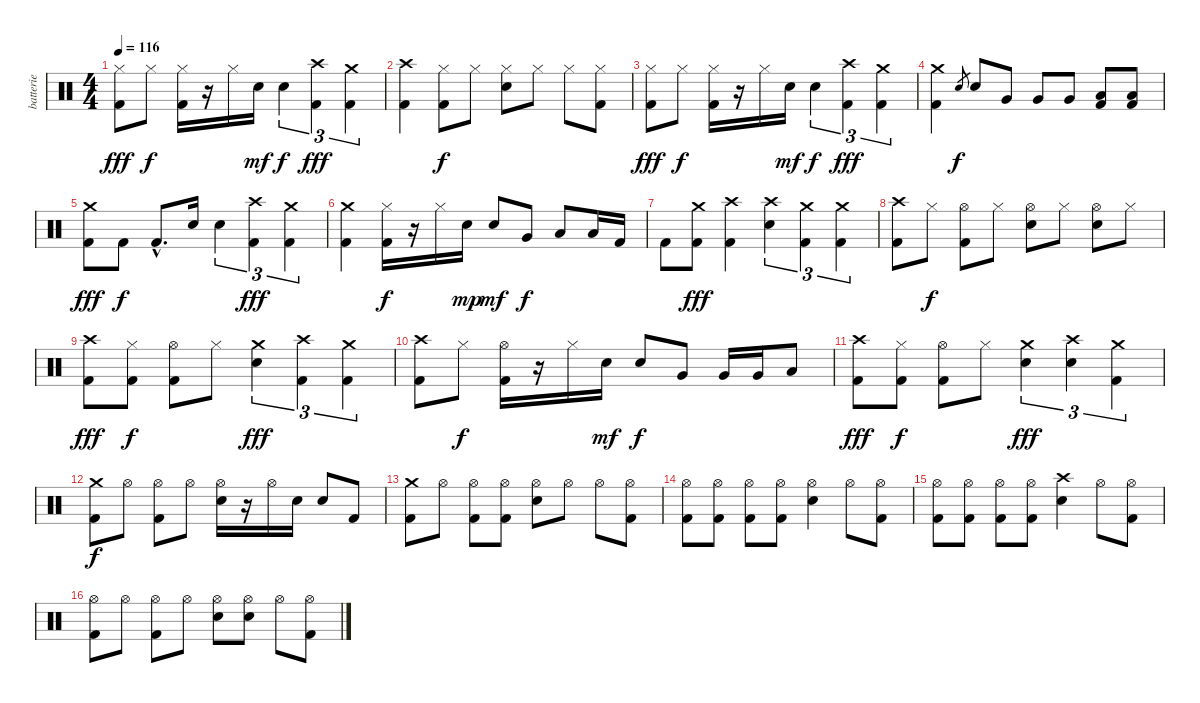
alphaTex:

\track ("batterie" "batterie") {instrument percussion}
\staff {score}
\articulation defaults
\ts (4 4)
\tempo 116
\clef neutral
\ks c
("Kick (hit) 2" "Hi-Hat (closed)").8{dy fff} "Hi-Hat (closed)".8{dy f} ("Kick (hit) 2" "Hi-Hat (closed)").16 r.16 "Hi-Hat (closed)".16 "Electric Snare (hit)".16{dy mf} "Electric Snare (hit)".4{tu (3 2) dy f} ("Kick (hit) 2" "Crash high (hit)").4{tu (3 2) dy fff} ("Kick (hit) 2" "Crash medium (hit)").4{tu (3 2)} |
("Kick (hit) 2" "Crash high (hit)").4 ("Kick (hit) 2" "Hi-Hat (closed)").8{dy f} "Hi-Hat (closed)".8 ("Electric Snare (hit)" "Hi-Hat (closed)").8 "Hi-Hat (closed)".8 "Hi-Hat (closed)".8 ("Kick (hit) 2" "Hi-Hat (closed)").8 |
("Kick (hit) 2" "Hi-Hat (closed)").8{dy fff} "Hi-Hat (closed)".8{dy f} ("Kick (hit) 2" "Hi-Hat (closed)").16 r.16 "Hi-Hat (closed)".16 "Electric Snare (hit)".16{dy mf} "Electric Snare (hit)".4{tu (3 2) dy f} ("Kick (hit) 2" "Crash high (hit)").4{tu (3 2) dy fff} ("Kick (hit) 2" "Crash medium (hit)").4{tu (3 2)} |
("Kick (hit) 2" "Crash medium (hit)").4 "Electric Snare (hit)".8{gr dy f} "Electric Snare (hit)".8 "Very Low Tom (hit)".8 "Very Low Tom (hit)".8 "Very Low Tom (hit)".8 ("Kick (hit) 2" "Low Floor Tom (hit)").8 ("Kick (hit) 2" "Low Floor Tom (hit)").8 |
("Crash medium (hit)" "Kick (hit) 2").8{dy fff} "Kick (hit) 2".8{dy f} "Kick (hit) 2"{hac}.8{d} "Electric Snare (hit)".16 "Electric Snare (hit)".4{tu (3 2)} ("Crash high (hit)" "Kick (hit) 2").4{tu (3 2) dy fff} ("Crash medium (hit)" "Kick (hit) 2").4{tu (3 2)} |
("Crash medium (hit)" "Kick (hit) 2").4 ("Hi-Hat (closed)" "Kick (hit) 2").16{dy f} r.16 "Hi-Hat (closed)".16 "Electric Snare (hit)".16{dy mp} "Electric Snare (hit)".8{dy mf} "Very Low Tom (hit)".8{dy f} "Low Floor Tom (hit)".8 "Low Floor Tom (hit)".16 "Kick (hit) 2".16 |
"Kick (hit) 2".8 ("Crash medium (hit)" "Kick (hit) 2").8{dy fff} ("Crash high (hit)" "Kick (hit) 2").4 ("Crash high (hit)" "Electric Snare (hit)").4{tu (3 2)} ("Crash medium (hit)" "Kick (hit) 2").4{tu (3 2)} ("Crash medium (hit)" "Kick (hit) 2").4{tu (3 2)} |
("Kick (hit) 2" "Crash high (hit)").8 "Hi-Hat (closed)".8{dy f} ("Kick (hit) 2" "Hi-Hat (open)").8 "Hi-Hat (closed)".8 ("Electric Snare (hit)" "Hi-Hat (open)").8 "Hi-Hat (closed)".8 ("Electric Snare (hit)" "Hi-Hat (open)").8 "Hi-Hat (closed)".8 |
("Crash high (hit)" "Kick (hit) 2").8{dy fff} ("Hi-Hat (closed)" "Kick (hit) 2").8{dy f} ("Hi-Hat (open)" "Kick (hit) 2").8 "Hi-Hat (closed)".8 ("Crash medium (hit)" "Electric Snare (hit)").4{tu (3 2) dy fff} ("Crash high (hit)" "Kick (hit) 2").4{tu (3 2)} ("Crash medium (hit)" "Kick (hit) 2").4{tu (3 2)} |
("Crash high (hit)" "Kick (hit) 2").8 "Hi-Hat (closed)".8{dy f} ("Kick (hit) 2" "Hi-Hat (open)").16 r.16 "Hi-Hat (closed)".16 "Electric Snare (hit)".16{dy mf} "Electric Snare (hit)".8{dy f} "Very Low Tom (hit)".8 "Very Low Tom (hit)".16 "Very Low Tom (hit)".16 "Low Floor Tom (hit)".8 |
("Crash high (hit)" "Kick (hit) 2").8{dy fff} ("Hi-Hat (closed)" "Kick (hit) 2").8{dy f} ("Hi-Hat (open)" "Kick (hit) 2").8 "Hi-Hat (closed)".8 ("Crash medium (hit)" "Electric Snare (hit)").4{tu (3 2) dy fff} ("Crash high (hit)" "Electric Snare (hit)").4{tu (3 2)} ("Crash medium (hit)" "Kick (hit) 2").4{tu (3 2)} |
("Crash medium (hit)" "Kick (hit) 2").8{dy f} "Hi-Hat (open)".8 ("Hi-Hat (open)" "Kick (hit) 2").8 "Hi-Hat (open)".8 ("Electric Snare (hit)" "Hi-Hat (open)").16 r.16 "Hi-Hat (open)".16 "Electric Snare (hit)".16 "Electric Snare (hit)".8 "Kick (hit) 2".8 |
("Kick (hit) 2" "Crash medium (hit)").8 "Hi-Hat (open)".8 ("Kick (hit) 2" "Hi-Hat (open)").8 ("Kick (hit) 2" "Hi-Hat (open)").8 ("Electric Snare (hit)" "Hi-Hat (open)").8 "Hi-Hat (open)".8 "Hi-Hat (open)".8 ("Kick (hit) 2" "Hi-Hat (open)").8 |
("Kick (hit) 2" "Hi-Hat (open)").8 ("Kick (hit) 2" "Hi-Hat (open)").8 ("Kick (hit) 2" "Hi-Hat (open)").8 ("Kick (hit) 2" "Hi-Hat (open)").8 ("Electric Snare (hit)" "Hi-Hat (open)").4 "Hi-Hat (open)".8 ("Kick (hit) 2" "Hi-Hat (open)").8 |
("Kick (hit) 2" "Hi-Hat (open)").8 ("Kick (hit) 2" "Hi-Hat (open)").8 ("Kick (hit) 2" "Hi-Hat (open)").8 ("Kick (hit) 2" "Hi-Hat (open)").8 ("Electric Snare (hit)" "Crash high (hit)").4 "Hi-Hat (open)".8 ("Kick (hit) 2" "Hi-Hat (open)").8 |
("Kick (hit) 2" "Hi-Hat (open)").8 "Hi-Hat (open)".8 ("Kick (hit) 2" "Hi-Hat (open)").8 "Hi-Hat (open)".8 ("Electric Snare (hit)" "Hi-Hat (open)").8 ("Electric Snare (hit)" "Hi-Hat (open)").8 "Hi-Hat (open)".8 ("Kick (hit) 2" "Hi-Hat (open)").8
